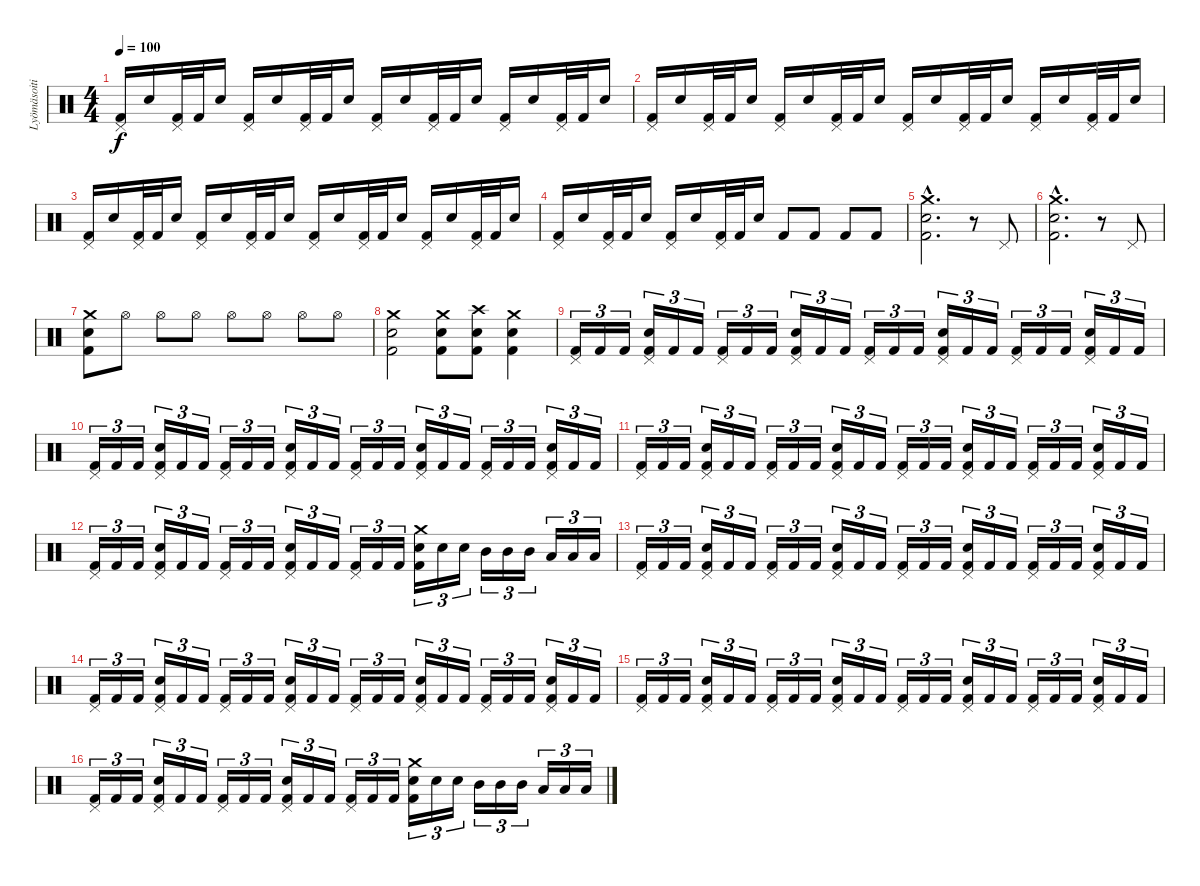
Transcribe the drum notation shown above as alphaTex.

\track ("Lyömäsoitin" "Lyömäsoiti") {instrument percussion}
\staff {score}
\articulation defaults
\ts (4 4)
\tempo 100
\clef neutral
\ks c
("Kick (hit) 2" "Pedal Hi-Hat (hit)").16{dy f} "Electric Snare (hit)".16 ("Kick (hit) 2" "Pedal Hi-Hat (hit)").32 "Kick (hit) 2".32 "Electric Snare (hit)".16 ("Kick (hit) 2" "Pedal Hi-Hat (hit)").16 "Electric Snare (hit)".16 ("Kick (hit) 2" "Pedal Hi-Hat (hit)").32 "Kick (hit) 2".32 "Electric Snare (hit)".16 ("Kick (hit) 2" "Pedal Hi-Hat (hit)").16 "Electric Snare (hit)".16 ("Kick (hit) 2" "Pedal Hi-Hat (hit)").32 "Kick (hit) 2".32 "Electric Snare (hit)".16 ("Kick (hit) 2" "Pedal Hi-Hat (hit)").16 "Electric Snare (hit)".16 ("Kick (hit) 2" "Pedal Hi-Hat (hit)").32 "Kick (hit) 2".32 "Electric Snare (hit)".16 |
("Kick (hit) 2" "Pedal Hi-Hat (hit)").16 "Electric Snare (hit)".16 ("Kick (hit) 2" "Pedal Hi-Hat (hit)").32 "Kick (hit) 2".32 "Electric Snare (hit)".16 ("Kick (hit) 2" "Pedal Hi-Hat (hit)").16 "Electric Snare (hit)".16 ("Kick (hit) 2" "Pedal Hi-Hat (hit)").32 "Kick (hit) 2".32 "Electric Snare (hit)".16 ("Kick (hit) 2" "Pedal Hi-Hat (hit)").16 "Electric Snare (hit)".16 ("Kick (hit) 2" "Pedal Hi-Hat (hit)").32 "Kick (hit) 2".32 "Electric Snare (hit)".16 ("Kick (hit) 2" "Pedal Hi-Hat (hit)").16 "Electric Snare (hit)".16 ("Kick (hit) 2" "Pedal Hi-Hat (hit)").32 "Kick (hit) 2".32 "Electric Snare (hit)".16 |
("Kick (hit) 2" "Pedal Hi-Hat (hit)").16 "Electric Snare (hit)".16 ("Kick (hit) 2" "Pedal Hi-Hat (hit)").32 "Kick (hit) 2".32 "Electric Snare (hit)".16 ("Kick (hit) 2" "Pedal Hi-Hat (hit)").16 "Electric Snare (hit)".16 ("Kick (hit) 2" "Pedal Hi-Hat (hit)").32 "Kick (hit) 2".32 "Electric Snare (hit)".16 ("Kick (hit) 2" "Pedal Hi-Hat (hit)").16 "Electric Snare (hit)".16 ("Kick (hit) 2" "Pedal Hi-Hat (hit)").32 "Kick (hit) 2".32 "Electric Snare (hit)".16 ("Kick (hit) 2" "Pedal Hi-Hat (hit)").16 "Electric Snare (hit)".16 ("Kick (hit) 2" "Pedal Hi-Hat (hit)").32 "Kick (hit) 2".32 "Electric Snare (hit)".16 |
("Kick (hit) 2" "Pedal Hi-Hat (hit)").16 "Electric Snare (hit)".16 ("Kick (hit) 2" "Pedal Hi-Hat (hit)").32 "Kick (hit) 2".32 "Electric Snare (hit)".16 ("Kick (hit) 2" "Pedal Hi-Hat (hit)").16 "Electric Snare (hit)".16 ("Kick (hit) 2" "Pedal Hi-Hat (hit)").32 "Kick (hit) 2".32 "Electric Snare (hit)".16 "Kick (hit) 2".8 "Kick (hit) 2".8 "Kick (hit) 2".8 "Kick (hit) 2".8 |
("Kick (hit) 2"{hac} "Electric Snare (hit)"{hac} "Crash medium (hit)"{hac}).2{d} r.8 "Pedal Hi-Hat (hit)".8 |
("Kick (hit) 2"{hac} "Electric Snare (hit)"{hac} "Crash medium (hit)"{hac}).2{d} r.8 "Pedal Hi-Hat (hit)".8 |
("Kick (hit) 2" "Electric Snare (hit)" "Crash medium (hit)").8 "Hi-Hat (open)".8 "Hi-Hat (open)".8 "Hi-Hat (open)".8 "Hi-Hat (open)".8 "Hi-Hat (open)".8 "Hi-Hat (open)".8 "Hi-Hat (open)".8 |
("Kick (hit) 2" "Electric Snare (hit)" "Crash medium (hit)").2 ("Kick (hit) 2" "Electric Snare (hit)" "Crash medium (hit)").8 ("Kick (hit) 2" "Electric Snare (hit)" "Crash high (hit)").8 ("Kick (hit) 2" "Electric Snare (hit)" "Crash medium (hit)").4 |
("Kick (hit) 2" "Pedal Hi-Hat (hit)").16{tu (3 2)} "Kick (hit) 2".16{tu (3 2)} "Kick (hit) 2".16{tu (3 2)} ("Kick (hit) 2" "Electric Snare (hit)" "Pedal Hi-Hat (hit)").16{tu (3 2)} "Kick (hit) 2".16{tu (3 2)} "Kick (hit) 2".16{tu (3 2)} ("Kick (hit) 2" "Pedal Hi-Hat (hit)").16{tu (3 2)} "Kick (hit) 2".16{tu (3 2)} "Kick (hit) 2".16{tu (3 2)} ("Kick (hit) 2" "Electric Snare (hit)" "Pedal Hi-Hat (hit)").16{tu (3 2)} "Kick (hit) 2".16{tu (3 2)} "Kick (hit) 2".16{tu (3 2)} ("Kick (hit) 2" "Pedal Hi-Hat (hit)").16{tu (3 2)} "Kick (hit) 2".16{tu (3 2)} "Kick (hit) 2".16{tu (3 2)} ("Kick (hit) 2" "Electric Snare (hit)" "Pedal Hi-Hat (hit)").16{tu (3 2)} "Kick (hit) 2".16{tu (3 2)} "Kick (hit) 2".16{tu (3 2)} ("Kick (hit) 2" "Pedal Hi-Hat (hit)").16{tu (3 2)} "Kick (hit) 2".16{tu (3 2)} "Kick (hit) 2".16{tu (3 2)} ("Kick (hit) 2" "Electric Snare (hit)" "Pedal Hi-Hat (hit)").16{tu (3 2)} "Kick (hit) 2".16{tu (3 2)} "Kick (hit) 2".16{tu (3 2)} |
("Kick (hit) 2" "Pedal Hi-Hat (hit)").16{tu (3 2)} "Kick (hit) 2".16{tu (3 2)} "Kick (hit) 2".16{tu (3 2)} ("Kick (hit) 2" "Electric Snare (hit)" "Pedal Hi-Hat (hit)").16{tu (3 2)} "Kick (hit) 2".16{tu (3 2)} "Kick (hit) 2".16{tu (3 2)} ("Kick (hit) 2" "Pedal Hi-Hat (hit)").16{tu (3 2)} "Kick (hit) 2".16{tu (3 2)} "Kick (hit) 2".16{tu (3 2)} ("Kick (hit) 2" "Electric Snare (hit)" "Pedal Hi-Hat (hit)").16{tu (3 2)} "Kick (hit) 2".16{tu (3 2)} "Kick (hit) 2".16{tu (3 2)} ("Kick (hit) 2" "Pedal Hi-Hat (hit)").16{tu (3 2)} "Kick (hit) 2".16{tu (3 2)} "Kick (hit) 2".16{tu (3 2)} ("Kick (hit) 2" "Electric Snare (hit)" "Pedal Hi-Hat (hit)").16{tu (3 2)} "Kick (hit) 2".16{tu (3 2)} "Kick (hit) 2".16{tu (3 2)} ("Kick (hit) 2" "Pedal Hi-Hat (hit)").16{tu (3 2)} "Kick (hit) 2".16{tu (3 2)} "Kick (hit) 2".16{tu (3 2)} ("Kick (hit) 2" "Electric Snare (hit)" "Pedal Hi-Hat (hit)").16{tu (3 2)} "Kick (hit) 2".16{tu (3 2)} "Kick (hit) 2".16{tu (3 2)} |
("Kick (hit) 2" "Pedal Hi-Hat (hit)").16{tu (3 2)} "Kick (hit) 2".16{tu (3 2)} "Kick (hit) 2".16{tu (3 2)} ("Kick (hit) 2" "Electric Snare (hit)" "Pedal Hi-Hat (hit)").16{tu (3 2)} "Kick (hit) 2".16{tu (3 2)} "Kick (hit) 2".16{tu (3 2)} ("Kick (hit) 2" "Pedal Hi-Hat (hit)").16{tu (3 2)} "Kick (hit) 2".16{tu (3 2)} "Kick (hit) 2".16{tu (3 2)} ("Kick (hit) 2" "Electric Snare (hit)" "Pedal Hi-Hat (hit)").16{tu (3 2)} "Kick (hit) 2".16{tu (3 2)} "Kick (hit) 2".16{tu (3 2)} ("Kick (hit) 2" "Pedal Hi-Hat (hit)").16{tu (3 2)} "Kick (hit) 2".16{tu (3 2)} "Kick (hit) 2".16{tu (3 2)} ("Kick (hit) 2" "Electric Snare (hit)" "Pedal Hi-Hat (hit)").16{tu (3 2)} "Kick (hit) 2".16{tu (3 2)} "Kick (hit) 2".16{tu (3 2)} ("Kick (hit) 2" "Pedal Hi-Hat (hit)").16{tu (3 2)} "Kick (hit) 2".16{tu (3 2)} "Kick (hit) 2".16{tu (3 2)} ("Kick (hit) 2" "Electric Snare (hit)" "Pedal Hi-Hat (hit)").16{tu (3 2)} "Kick (hit) 2".16{tu (3 2)} "Kick (hit) 2".16{tu (3 2)} |
("Kick (hit) 2" "Pedal Hi-Hat (hit)").16{tu (3 2)} "Kick (hit) 2".16{tu (3 2)} "Kick (hit) 2".16{tu (3 2)} ("Kick (hit) 2" "Electric Snare (hit)" "Pedal Hi-Hat (hit)").16{tu (3 2)} "Kick (hit) 2".16{tu (3 2)} "Kick (hit) 2".16{tu (3 2)} ("Kick (hit) 2" "Pedal Hi-Hat (hit)").16{tu (3 2)} "Kick (hit) 2".16{tu (3 2)} "Kick (hit) 2".16{tu (3 2)} ("Kick (hit) 2" "Electric Snare (hit)" "Pedal Hi-Hat (hit)").16{tu (3 2)} "Kick (hit) 2".16{tu (3 2)} "Kick (hit) 2".16{tu (3 2)} ("Kick (hit) 2" "Pedal Hi-Hat (hit)").16{tu (3 2)} "Kick (hit) 2".16{tu (3 2)} "Kick (hit) 2".16{tu (3 2)} ("Kick (hit) 2" "Electric Snare (hit)" "Crash medium (hit)").16{tu (3 2)} "Electric Snare (hit)".16{tu (3 2)} "Electric Snare (hit)".16{tu (3 2)} "Mid Tom (hit)".16{tu (3 2)} "Mid Tom (hit)".16{tu (3 2)} "Mid Tom (hit)".16{tu (3 2)} "Low Tom (hit)".16{tu (3 2)} "Low Tom (hit)".16{tu (3 2)} "Low Tom (hit)".16{tu (3 2)} |
("Kick (hit) 2" "Pedal Hi-Hat (hit)").16{tu (3 2)} "Kick (hit) 2".16{tu (3 2)} "Kick (hit) 2".16{tu (3 2)} ("Kick (hit) 2" "Electric Snare (hit)" "Pedal Hi-Hat (hit)").16{tu (3 2)} "Kick (hit) 2".16{tu (3 2)} "Kick (hit) 2".16{tu (3 2)} ("Kick (hit) 2" "Pedal Hi-Hat (hit)").16{tu (3 2)} "Kick (hit) 2".16{tu (3 2)} "Kick (hit) 2".16{tu (3 2)} ("Kick (hit) 2" "Electric Snare (hit)" "Pedal Hi-Hat (hit)").16{tu (3 2)} "Kick (hit) 2".16{tu (3 2)} "Kick (hit) 2".16{tu (3 2)} ("Kick (hit) 2" "Pedal Hi-Hat (hit)").16{tu (3 2)} "Kick (hit) 2".16{tu (3 2)} "Kick (hit) 2".16{tu (3 2)} ("Kick (hit) 2" "Electric Snare (hit)" "Pedal Hi-Hat (hit)").16{tu (3 2)} "Kick (hit) 2".16{tu (3 2)} "Kick (hit) 2".16{tu (3 2)} ("Kick (hit) 2" "Pedal Hi-Hat (hit)").16{tu (3 2)} "Kick (hit) 2".16{tu (3 2)} "Kick (hit) 2".16{tu (3 2)} ("Kick (hit) 2" "Electric Snare (hit)" "Pedal Hi-Hat (hit)").16{tu (3 2)} "Kick (hit) 2".16{tu (3 2)} "Kick (hit) 2".16{tu (3 2)} |
("Kick (hit) 2" "Pedal Hi-Hat (hit)").16{tu (3 2)} "Kick (hit) 2".16{tu (3 2)} "Kick (hit) 2".16{tu (3 2)} ("Kick (hit) 2" "Electric Snare (hit)" "Pedal Hi-Hat (hit)").16{tu (3 2)} "Kick (hit) 2".16{tu (3 2)} "Kick (hit) 2".16{tu (3 2)} ("Kick (hit) 2" "Pedal Hi-Hat (hit)").16{tu (3 2)} "Kick (hit) 2".16{tu (3 2)} "Kick (hit) 2".16{tu (3 2)} ("Kick (hit) 2" "Electric Snare (hit)" "Pedal Hi-Hat (hit)").16{tu (3 2)} "Kick (hit) 2".16{tu (3 2)} "Kick (hit) 2".16{tu (3 2)} ("Kick (hit) 2" "Pedal Hi-Hat (hit)").16{tu (3 2)} "Kick (hit) 2".16{tu (3 2)} "Kick (hit) 2".16{tu (3 2)} ("Kick (hit) 2" "Electric Snare (hit)" "Pedal Hi-Hat (hit)").16{tu (3 2)} "Kick (hit) 2".16{tu (3 2)} "Kick (hit) 2".16{tu (3 2)} ("Kick (hit) 2" "Pedal Hi-Hat (hit)").16{tu (3 2)} "Kick (hit) 2".16{tu (3 2)} "Kick (hit) 2".16{tu (3 2)} ("Kick (hit) 2" "Electric Snare (hit)" "Pedal Hi-Hat (hit)").16{tu (3 2)} "Kick (hit) 2".16{tu (3 2)} "Kick (hit) 2".16{tu (3 2)} |
("Kick (hit) 2" "Pedal Hi-Hat (hit)").16{tu (3 2)} "Kick (hit) 2".16{tu (3 2)} "Kick (hit) 2".16{tu (3 2)} ("Kick (hit) 2" "Electric Snare (hit)" "Pedal Hi-Hat (hit)").16{tu (3 2)} "Kick (hit) 2".16{tu (3 2)} "Kick (hit) 2".16{tu (3 2)} ("Kick (hit) 2" "Pedal Hi-Hat (hit)").16{tu (3 2)} "Kick (hit) 2".16{tu (3 2)} "Kick (hit) 2".16{tu (3 2)} ("Kick (hit) 2" "Electric Snare (hit)" "Pedal Hi-Hat (hit)").16{tu (3 2)} "Kick (hit) 2".16{tu (3 2)} "Kick (hit) 2".16{tu (3 2)} ("Kick (hit) 2" "Pedal Hi-Hat (hit)").16{tu (3 2)} "Kick (hit) 2".16{tu (3 2)} "Kick (hit) 2".16{tu (3 2)} ("Kick (hit) 2" "Electric Snare (hit)" "Pedal Hi-Hat (hit)").16{tu (3 2)} "Kick (hit) 2".16{tu (3 2)} "Kick (hit) 2".16{tu (3 2)} ("Kick (hit) 2" "Pedal Hi-Hat (hit)").16{tu (3 2)} "Kick (hit) 2".16{tu (3 2)} "Kick (hit) 2".16{tu (3 2)} ("Kick (hit) 2" "Electric Snare (hit)" "Pedal Hi-Hat (hit)").16{tu (3 2)} "Kick (hit) 2".16{tu (3 2)} "Kick (hit) 2".16{tu (3 2)} |
("Kick (hit) 2" "Pedal Hi-Hat (hit)").16{tu (3 2)} "Kick (hit) 2".16{tu (3 2)} "Kick (hit) 2".16{tu (3 2)} ("Kick (hit) 2" "Electric Snare (hit)" "Pedal Hi-Hat (hit)").16{tu (3 2)} "Kick (hit) 2".16{tu (3 2)} "Kick (hit) 2".16{tu (3 2)} ("Kick (hit) 2" "Pedal Hi-Hat (hit)").16{tu (3 2)} "Kick (hit) 2".16{tu (3 2)} "Kick (hit) 2".16{tu (3 2)} ("Kick (hit) 2" "Electric Snare (hit)" "Pedal Hi-Hat (hit)").16{tu (3 2)} "Kick (hit) 2".16{tu (3 2)} "Kick (hit) 2".16{tu (3 2)} ("Kick (hit) 2" "Pedal Hi-Hat (hit)").16{tu (3 2)} "Kick (hit) 2".16{tu (3 2)} "Kick (hit) 2".16{tu (3 2)} ("Kick (hit) 2" "Electric Snare (hit)" "Crash medium (hit)").16{tu (3 2)} "Electric Snare (hit)".16{tu (3 2)} "Electric Snare (hit)".16{tu (3 2)} "Mid Tom (hit)".16{tu (3 2)} "Mid Tom (hit)".16{tu (3 2)} "Mid Tom (hit)".16{tu (3 2)} "Low Tom (hit)".16{tu (3 2)} "Low Tom (hit)".16{tu (3 2)} "Low Tom (hit)".16{tu (3 2)}
